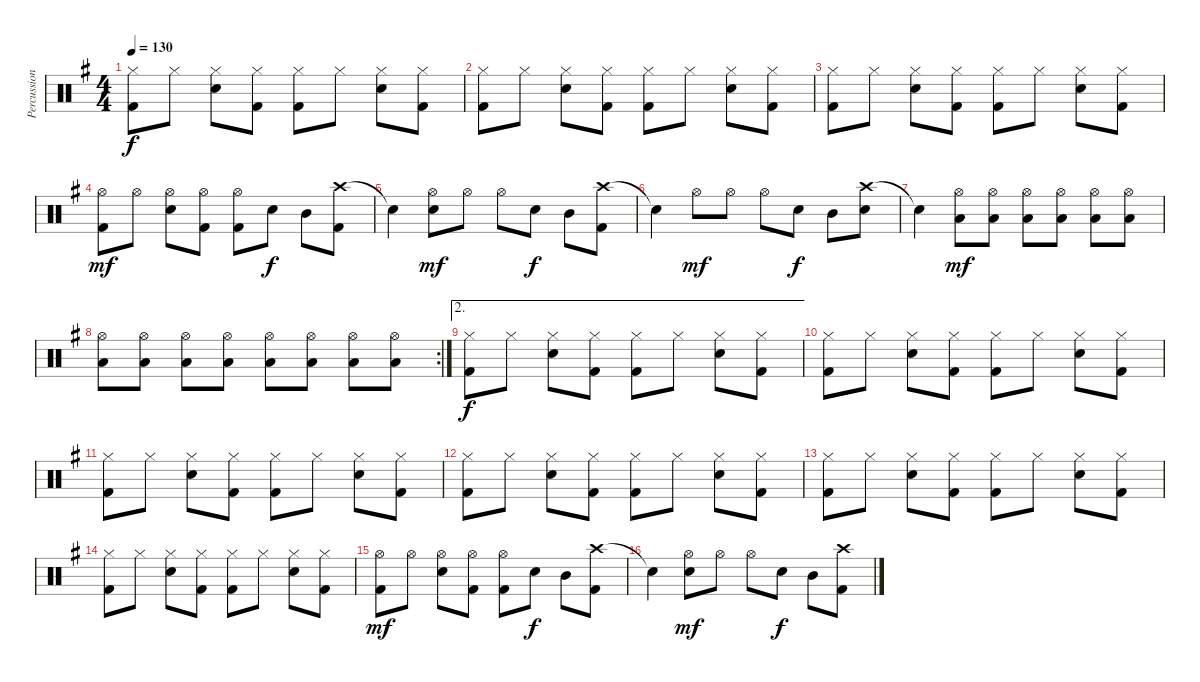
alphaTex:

\track ("Percussion" "Percussion") {instrument percussion}
\staff {score}
\articulation defaults
\ts (4 4)
\tempo 130
\clef neutral
\ks g
("Hi-Hat (closed)" "Kick (hit) 2").8{dy f} "Hi-Hat (closed)".8 ("Hi-Hat (closed)" "Snare (hit) 2").8 ("Hi-Hat (closed)" "Kick (hit) 2").8 ("Hi-Hat (closed)" "Kick (hit) 2").8 "Hi-Hat (closed)".8 ("Hi-Hat (closed)" "Snare (hit) 2").8 ("Hi-Hat (closed)" "Kick (hit) 2").8 |
("Hi-Hat (closed)" "Kick (hit) 2").8 "Hi-Hat (closed)".8 ("Hi-Hat (closed)" "Snare (hit) 2").8 ("Hi-Hat (closed)" "Kick (hit) 2").8 ("Hi-Hat (closed)" "Kick (hit) 2").8 "Hi-Hat (closed)".8 ("Hi-Hat (closed)" "Snare (hit) 2").8 ("Hi-Hat (closed)" "Kick (hit) 2").8 |
("Hi-Hat (closed)" "Kick (hit) 2").8 "Hi-Hat (closed)".8 ("Hi-Hat (closed)" "Snare (hit) 2").8 ("Hi-Hat (closed)" "Kick (hit) 2").8 ("Hi-Hat (closed)" "Kick (hit) 2").8 "Hi-Hat (closed)".8 ("Hi-Hat (closed)" "Snare (hit) 2").8 ("Hi-Hat (closed)" "Kick (hit) 2").8 |
("Hi-Hat (open)" "Kick (hit) 2").8{dy mf} "Hi-Hat (open)".8 ("Hi-Hat (open)" "Snare (hit) 2").8 ("Hi-Hat (open)" "Kick (hit) 2").8 ("Hi-Hat (open)" "Kick (hit) 2").8 "Snare (hit) 2".8{dy f} "Mid Tom (hit)".8 ("Crash high (hit)" "Kick (hit) 2").8 |
"Snare (hit)"{t}.4 ("Hi-Hat (open)" "Snare (hit) 2").8{dy mf} "Hi-Hat (open)".8 "Hi-Hat (open)".8 "Snare (hit) 2".8{dy f} "Mid Tom (hit)".8 ("Crash high (hit)" "Kick (hit) 2").8 |
"Snare (hit)"{t}.4 "Hi-Hat (open)".8{dy mf} "Hi-Hat (open)".8 "Hi-Hat (open)".8 "Snare (hit) 2".8{dy f} "Mid Tom (hit)".8 ("Crash high (hit)" "Snare (hit)").8 |
"Snare (hit)"{t}.4 ("Hi-Hat (open)" "Low Floor Tom (hit)").8{dy mf} ("Hi-Hat (open)" "Low Floor Tom (hit)").8 ("Hi-Hat (open)" "Low Floor Tom (hit)").8 ("Hi-Hat (open)" "Low Floor Tom (hit)").8 ("Hi-Hat (open)" "Low Floor Tom (hit)").8 ("Hi-Hat (open)" "Low Floor Tom (hit)").8 |
\rc 2
("Hi-Hat (open)" "Low Floor Tom (hit)").8 ("Hi-Hat (open)" "Low Floor Tom (hit)").8 ("Hi-Hat (open)" "Low Floor Tom (hit)").8 ("Hi-Hat (open)" "Low Floor Tom (hit)").8 ("Hi-Hat (open)" "Low Floor Tom (hit)").8 ("Hi-Hat (open)" "Low Floor Tom (hit)").8 ("Hi-Hat (open)" "Low Floor Tom (hit)").8 ("Hi-Hat (open)" "Low Floor Tom (hit)").8 |
\ae 2
("Hi-Hat (closed)" "Kick (hit) 2").8{dy f} "Hi-Hat (closed)".8 ("Hi-Hat (closed)" "Snare (hit) 2").8 ("Hi-Hat (closed)" "Kick (hit) 2").8 ("Hi-Hat (closed)" "Kick (hit) 2").8 "Hi-Hat (closed)".8 ("Hi-Hat (closed)" "Snare (hit) 2").8 ("Hi-Hat (closed)" "Kick (hit) 2").8 |
("Hi-Hat (closed)" "Kick (hit) 2").8 "Hi-Hat (closed)".8 ("Hi-Hat (closed)" "Snare (hit) 2").8 ("Hi-Hat (closed)" "Kick (hit) 2").8 ("Hi-Hat (closed)" "Kick (hit) 2").8 "Hi-Hat (closed)".8 ("Hi-Hat (closed)" "Snare (hit) 2").8 ("Hi-Hat (closed)" "Kick (hit) 2").8 |
("Hi-Hat (closed)" "Kick (hit) 2").8 "Hi-Hat (closed)".8 ("Hi-Hat (closed)" "Snare (hit) 2").8 ("Hi-Hat (closed)" "Kick (hit) 2").8 ("Hi-Hat (closed)" "Kick (hit) 2").8 "Hi-Hat (closed)".8 ("Hi-Hat (closed)" "Snare (hit) 2").8 ("Hi-Hat (closed)" "Kick (hit) 2").8 |
("Hi-Hat (closed)" "Kick (hit) 2").8 "Hi-Hat (closed)".8 ("Hi-Hat (closed)" "Snare (hit) 2").8 ("Hi-Hat (closed)" "Kick (hit) 2").8 ("Hi-Hat (closed)" "Kick (hit) 2").8 "Hi-Hat (closed)".8 ("Hi-Hat (closed)" "Snare (hit) 2").8 ("Hi-Hat (closed)" "Kick (hit) 2").8 |
("Hi-Hat (closed)" "Kick (hit) 2").8 "Hi-Hat (closed)".8 ("Hi-Hat (closed)" "Snare (hit) 2").8 ("Hi-Hat (closed)" "Kick (hit) 2").8 ("Hi-Hat (closed)" "Kick (hit) 2").8 "Hi-Hat (closed)".8 ("Hi-Hat (closed)" "Snare (hit) 2").8 ("Hi-Hat (closed)" "Kick (hit) 2").8 |
("Hi-Hat (closed)" "Kick (hit) 2").8 "Hi-Hat (closed)".8 ("Hi-Hat (closed)" "Snare (hit) 2").8 ("Hi-Hat (closed)" "Kick (hit) 2").8 ("Hi-Hat (closed)" "Kick (hit) 2").8 "Hi-Hat (closed)".8 ("Hi-Hat (closed)" "Snare (hit) 2").8 ("Hi-Hat (closed)" "Kick (hit) 2").8 |
("Hi-Hat (open)" "Kick (hit) 2").8{dy mf} "Hi-Hat (open)".8 ("Hi-Hat (open)" "Snare (hit) 2").8 ("Hi-Hat (open)" "Kick (hit) 2").8 ("Hi-Hat (open)" "Kick (hit) 2").8 "Snare (hit) 2".8{dy f} "Mid Tom (hit)".8 ("Crash high (hit)" "Kick (hit) 2").8 |
"Snare (hit)"{t}.4 ("Hi-Hat (open)" "Snare (hit) 2").8{dy mf} "Hi-Hat (open)".8 "Hi-Hat (open)".8 "Snare (hit) 2".8{dy f} "Mid Tom (hit)".8 ("Crash high (hit)" "Kick (hit) 2").8
